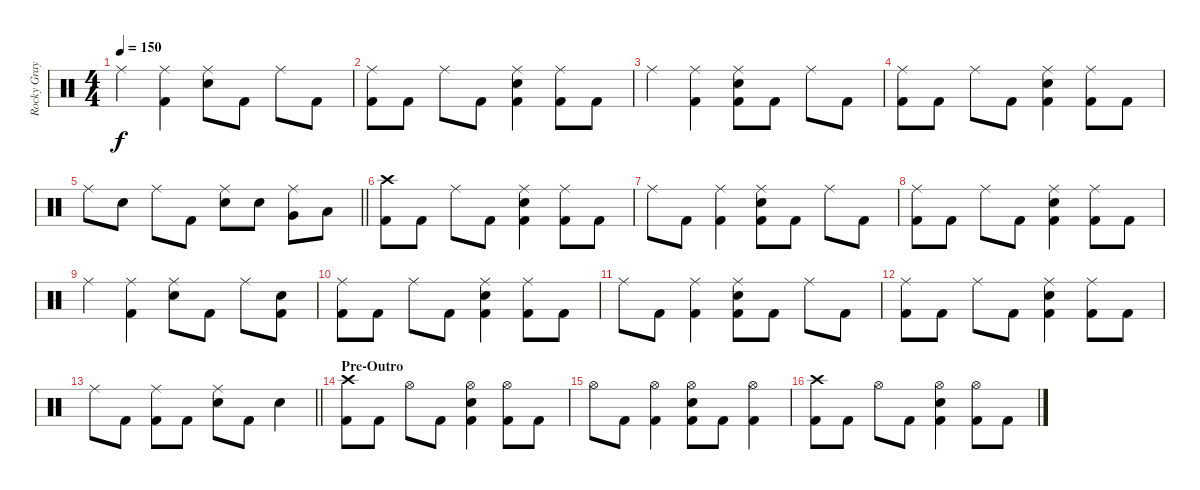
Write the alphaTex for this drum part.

\track ("Rocky Gray" "Rocky Gray") {instrument percussion}
\staff {score}
\articulation defaults
\ts (4 4)
\tempo 150
\clef neutral
\ks c "Ride (middle)".4{dy f}
("Ride (middle)" "Kick (hit) 2").4 ("Ride (middle)" "Snare (hit) 2").8 "Kick (hit) 2".8 "Ride (middle)".8 "Kick (hit) 2".8 |
("Ride (middle)" "Kick (hit) 2").8 "Kick (hit) 2".8 "Ride (middle)".8 "Kick (hit) 2".8 ("Ride (middle)" "Snare (hit) 2" "Kick (hit) 2").4 ("Ride (middle)" "Kick (hit) 2").8 "Kick (hit) 2".8 |
"Ride (middle)".4 ("Ride (middle)" "Kick (hit) 2").4 ("Ride (middle)" "Snare (hit) 2" "Kick (hit) 2").8 "Kick (hit) 2".8 "Ride (middle)".8 "Kick (hit) 2".8 |
("Ride (middle)" "Kick (hit) 2").8 "Kick (hit) 2".8 "Ride (middle)".8 "Kick (hit) 2".8 ("Ride (middle)" "Snare (hit) 2" "Kick (hit) 2").4 ("Ride (middle)" "Kick (hit) 2").8 "Kick (hit) 2".8 |
\barLineRight lightlight "Ride (middle)".8 "Snare (hit) 2".8 "Ride (middle)".8 "Kick (hit) 2".8
("Ride (middle)" "Snare (hit) 2").8 "Snare (hit) 2".8 ("Ride (middle)" "Very Low Tom (hit)").8 "Low Floor Tom (hit)".8 |
("Crash high (hit)" "Kick (hit) 2").8 "Kick (hit) 2".8 "Ride (middle)".8 "Kick (hit) 2".8 ("Ride (middle)" "Snare (hit) 2" "Kick (hit) 2").4 ("Ride (middle)" "Kick (hit) 2").8 "Kick (hit) 2".8 |
"Ride (middle)".8 "Kick (hit) 2".8 ("Ride (middle)" "Kick (hit) 2").4 ("Ride (middle)" "Snare (hit) 2" "Kick (hit) 2").8 "Kick (hit) 2".8 "Ride (middle)".8 "Kick (hit) 2".8 |
("Ride (middle)" "Kick (hit) 2").8 "Kick (hit) 2".8 "Ride (middle)".8 "Kick (hit) 2".8 ("Ride (middle)" "Snare (hit) 2" "Kick (hit) 2").4 ("Ride (middle)" "Kick (hit) 2").8 "Kick (hit) 2".8 |
"Ride (middle)".4 ("Ride (middle)" "Kick (hit) 2").4 ("Ride (middle)" "Snare (hit) 2").8 "Kick (hit) 2".8 "Ride (middle)".8 ("Snare (hit) 2" "Kick (hit) 2").8 |
("Ride (middle)" "Kick (hit) 2").8 "Kick (hit) 2".8 "Ride (middle)".8 "Kick (hit) 2".8 ("Ride (middle)" "Snare (hit) 2" "Kick (hit) 2").4 ("Ride (middle)" "Kick (hit) 2").8 "Kick (hit) 2".8 |
"Ride (middle)".8 "Kick (hit) 2".8 ("Ride (middle)" "Kick (hit) 2").4 ("Ride (middle)" "Snare (hit) 2" "Kick (hit) 2").8 "Kick (hit) 2".8 "Ride (middle)".8 "Kick (hit) 2".8 |
("Ride (middle)" "Kick (hit) 2").8 "Kick (hit) 2".8 "Ride (middle)".8 "Kick (hit) 2".8 ("Ride (middle)" "Snare (hit) 2" "Kick (hit) 2").4 ("Ride (middle)" "Kick (hit) 2").8 "Kick (hit) 2".8 |
\barLineRight lightlight "Ride (middle)".8 "Kick (hit) 2".8
("Ride (middle)" "Kick (hit) 2").8 "Kick (hit) 2".8 ("Ride (middle)" "Snare (hit) 2").8 "Kick (hit) 2".8 "Snare (hit) 2".4 |
\section ("" "Pre-Outro")
("Crash high (hit)" "Kick (hit) 2").8 "Kick (hit) 2".8 "Hi-Hat (open)".8 "Kick (hit) 2".8 ("Hi-Hat (open)" "Snare (hit) 2" "Kick (hit) 2").4 ("Hi-Hat (open)" "Kick (hit) 2").8 "Kick (hit) 2".8 |
"Hi-Hat (open)".8 "Kick (hit) 2".8 ("Hi-Hat (open)" "Kick (hit) 2").4 ("Hi-Hat (open)" "Snare (hit) 2" "Kick (hit) 2").8 "Kick (hit) 2".8 ("Hi-Hat (open)" "Kick (hit) 2").4 |
("Crash high (hit)" "Kick (hit) 2").8 "Kick (hit) 2".8 "Hi-Hat (open)".8 "Kick (hit) 2".8 ("Hi-Hat (open)" "Snare (hit) 2" "Kick (hit) 2").4 ("Hi-Hat (open)" "Kick (hit) 2").8 "Kick (hit) 2".8
